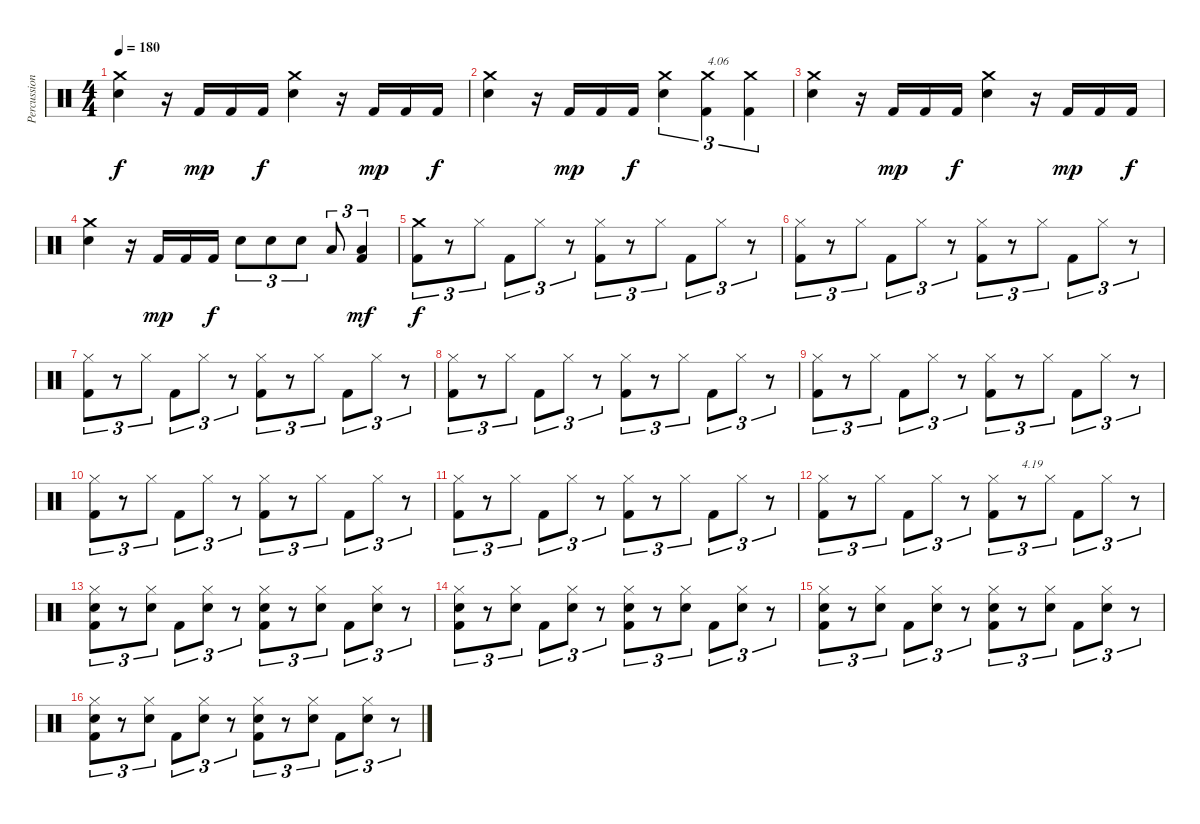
\track ("Percussions" "Percussion") {instrument percussion}
\staff {score}
\articulation defaults
\ts (4 4)
\tempo 180
\clef neutral
\ks c
("Electric Snare (hit)" "Crash medium (hit)").4{dy f} r.16 "Kick (hit) 2".16{dy mp} "Kick (hit) 2".16 "Kick (hit) 2".16{dy f} ("Electric Snare (hit)" "Crash medium (hit)").4 r.16 "Kick (hit) 2".16{dy mp} "Kick (hit) 2".16 "Kick (hit) 2".16{dy f} |
("Electric Snare (hit)" "Crash medium (hit)").4 r.16 "Kick (hit) 2".16{dy mp} "Kick (hit) 2".16 "Kick (hit) 2".16{dy f} ("Electric Snare (hit)" "Crash medium (hit)").4{tu (3 2)} ("Kick (hit) 2" "Crash medium (hit)").4{tu (3 2) txt "4.06"} ("Kick (hit) 2" "Crash medium (hit)").4{tu (3 2)} |
("Electric Snare (hit)" "Crash medium (hit)").4 r.16 "Kick (hit) 2".16{dy mp} "Kick (hit) 2".16 "Kick (hit) 2".16{dy f} ("Electric Snare (hit)" "Crash medium (hit)").4 r.16 "Kick (hit) 2".16{dy mp} "Kick (hit) 2".16 "Kick (hit) 2".16{dy f} |
("Electric Snare (hit)" "Crash medium (hit)").4 r.16 "Kick (hit) 2".16{dy mp} "Kick (hit) 2".16 "Kick (hit) 2".16{dy f} "Electric Snare (hit)".8{tu (3 2)} "Electric Snare (hit)".8{tu (3 2)} "Electric Snare (hit)".8{tu (3 2)} "Low Floor Tom (hit)".8{tu (3 2)} ("Kick (hit) 2" "Low Floor Tom (hit)").4{tu (3 2) dy mf} |
("Kick (hit) 2" "Crash medium (hit)").8{tu (3 2) dy f} r.8{tu (3 2)} "Hi-Hat (closed)".8{tu (3 2)} "Kick (hit) 2".8{tu (3 2)} "Hi-Hat (closed)".8{tu (3 2)} r.8{tu (3 2)} ("Kick (hit) 2" "Hi-Hat (closed)").8{tu (3 2)} r.8{tu (3 2)} "Hi-Hat (closed)".8{tu (3 2)} "Kick (hit) 2".8{tu (3 2)} "Hi-Hat (closed)".8{tu (3 2)} r.8{tu (3 2)} |
("Kick (hit) 2" "Hi-Hat (closed)").8{tu (3 2)} r.8{tu (3 2)} "Hi-Hat (closed)".8{tu (3 2)} "Kick (hit) 2".8{tu (3 2)} "Hi-Hat (closed)".8{tu (3 2)} r.8{tu (3 2)} ("Kick (hit) 2" "Hi-Hat (closed)").8{tu (3 2)} r.8{tu (3 2)} "Hi-Hat (closed)".8{tu (3 2)} "Kick (hit) 2".8{tu (3 2)} "Hi-Hat (closed)".8{tu (3 2)} r.8{tu (3 2)} |
("Kick (hit) 2" "Hi-Hat (closed)").8{tu (3 2)} r.8{tu (3 2)} "Hi-Hat (closed)".8{tu (3 2)} "Kick (hit) 2".8{tu (3 2)} "Hi-Hat (closed)".8{tu (3 2)} r.8{tu (3 2)} ("Kick (hit) 2" "Hi-Hat (closed)").8{tu (3 2)} r.8{tu (3 2)} "Hi-Hat (closed)".8{tu (3 2)} "Kick (hit) 2".8{tu (3 2)} "Hi-Hat (closed)".8{tu (3 2)} r.8{tu (3 2)} |
("Kick (hit) 2" "Hi-Hat (closed)").8{tu (3 2)} r.8{tu (3 2)} "Hi-Hat (closed)".8{tu (3 2)} "Kick (hit) 2".8{tu (3 2)} "Hi-Hat (closed)".8{tu (3 2)} r.8{tu (3 2)} ("Kick (hit) 2" "Hi-Hat (closed)").8{tu (3 2)} r.8{tu (3 2)} "Hi-Hat (closed)".8{tu (3 2)} "Kick (hit) 2".8{tu (3 2)} "Hi-Hat (closed)".8{tu (3 2)} r.8{tu (3 2)} |
("Kick (hit) 2" "Hi-Hat (closed)").8{tu (3 2)} r.8{tu (3 2)} "Hi-Hat (closed)".8{tu (3 2)} "Kick (hit) 2".8{tu (3 2)} "Hi-Hat (closed)".8{tu (3 2)} r.8{tu (3 2)} ("Kick (hit) 2" "Hi-Hat (closed)").8{tu (3 2)} r.8{tu (3 2)} "Hi-Hat (closed)".8{tu (3 2)} "Kick (hit) 2".8{tu (3 2)} "Hi-Hat (closed)".8{tu (3 2)} r.8{tu (3 2)} |
("Kick (hit) 2" "Hi-Hat (closed)").8{tu (3 2)} r.8{tu (3 2)} "Hi-Hat (closed)".8{tu (3 2)} "Kick (hit) 2".8{tu (3 2)} "Hi-Hat (closed)".8{tu (3 2)} r.8{tu (3 2)} ("Kick (hit) 2" "Hi-Hat (closed)").8{tu (3 2)} r.8{tu (3 2)} "Hi-Hat (closed)".8{tu (3 2)} "Kick (hit) 2".8{tu (3 2)} "Hi-Hat (closed)".8{tu (3 2)} r.8{tu (3 2)} |
("Kick (hit) 2" "Hi-Hat (closed)").8{tu (3 2)} r.8{tu (3 2)} "Hi-Hat (closed)".8{tu (3 2)} "Kick (hit) 2".8{tu (3 2)} "Hi-Hat (closed)".8{tu (3 2)} r.8{tu (3 2)} ("Kick (hit) 2" "Hi-Hat (closed)").8{tu (3 2)} r.8{tu (3 2)} "Hi-Hat (closed)".8{tu (3 2)} "Kick (hit) 2".8{tu (3 2)} "Hi-Hat (closed)".8{tu (3 2)} r.8{tu (3 2)} |
("Kick (hit) 2" "Hi-Hat (closed)").8{tu (3 2)} r.8{tu (3 2)} "Hi-Hat (closed)".8{tu (3 2)} "Kick (hit) 2".8{tu (3 2)} "Hi-Hat (closed)".8{tu (3 2)} r.8{tu (3 2)} ("Kick (hit) 2" "Hi-Hat (closed)").8{tu (3 2)} r.8{tu (3 2) txt "4.19"} "Hi-Hat (closed)".8{tu (3 2)} "Kick (hit) 2".8{tu (3 2)} "Hi-Hat (closed)".8{tu (3 2)} r.8{tu (3 2)} |
("Kick (hit) 2" "Electric Snare (hit)" "Hi-Hat (closed)").8{tu (3 2)} r.8{tu (3 2)} ("Electric Snare (hit)" "Hi-Hat (closed)").8{tu (3 2)} "Kick (hit) 2".8{tu (3 2)} ("Electric Snare (hit)" "Hi-Hat (closed)").8{tu (3 2)} r.8{tu (3 2)} ("Kick (hit) 2" "Electric Snare (hit)" "Hi-Hat (closed)").8{tu (3 2)} r.8{tu (3 2)} ("Electric Snare (hit)" "Hi-Hat (closed)").8{tu (3 2)} "Kick (hit) 2".8{tu (3 2)} ("Electric Snare (hit)" "Hi-Hat (closed)").8{tu (3 2)} r.8{tu (3 2)} |
("Kick (hit) 2" "Electric Snare (hit)" "Hi-Hat (closed)").8{tu (3 2)} r.8{tu (3 2)} ("Electric Snare (hit)" "Hi-Hat (closed)").8{tu (3 2)} "Kick (hit) 2".8{tu (3 2)} ("Electric Snare (hit)" "Hi-Hat (closed)").8{tu (3 2)} r.8{tu (3 2)} ("Kick (hit) 2" "Electric Snare (hit)" "Hi-Hat (closed)").8{tu (3 2)} r.8{tu (3 2)} ("Electric Snare (hit)" "Hi-Hat (closed)").8{tu (3 2)} "Kick (hit) 2".8{tu (3 2)} ("Electric Snare (hit)" "Hi-Hat (closed)").8{tu (3 2)} r.8{tu (3 2)} |
("Kick (hit) 2" "Electric Snare (hit)" "Hi-Hat (closed)").8{tu (3 2)} r.8{tu (3 2)} ("Electric Snare (hit)" "Hi-Hat (closed)").8{tu (3 2)} "Kick (hit) 2".8{tu (3 2)} ("Electric Snare (hit)" "Hi-Hat (closed)").8{tu (3 2)} r.8{tu (3 2)} ("Kick (hit) 2" "Electric Snare (hit)" "Hi-Hat (closed)").8{tu (3 2)} r.8{tu (3 2)} ("Electric Snare (hit)" "Hi-Hat (closed)").8{tu (3 2)} "Kick (hit) 2".8{tu (3 2)} ("Electric Snare (hit)" "Hi-Hat (closed)").8{tu (3 2)} r.8{tu (3 2)} |
("Kick (hit) 2" "Electric Snare (hit)" "Hi-Hat (closed)").8{tu (3 2)} r.8{tu (3 2)} ("Electric Snare (hit)" "Hi-Hat (closed)").8{tu (3 2)} "Kick (hit) 2".8{tu (3 2)} ("Electric Snare (hit)" "Hi-Hat (closed)").8{tu (3 2)} r.8{tu (3 2)} ("Kick (hit) 2" "Electric Snare (hit)" "Hi-Hat (closed)").8{tu (3 2)} r.8{tu (3 2)} ("Electric Snare (hit)" "Hi-Hat (closed)").8{tu (3 2)} "Kick (hit) 2".8{tu (3 2)} ("Electric Snare (hit)" "Hi-Hat (closed)").8{tu (3 2)} r.8{tu (3 2)}
